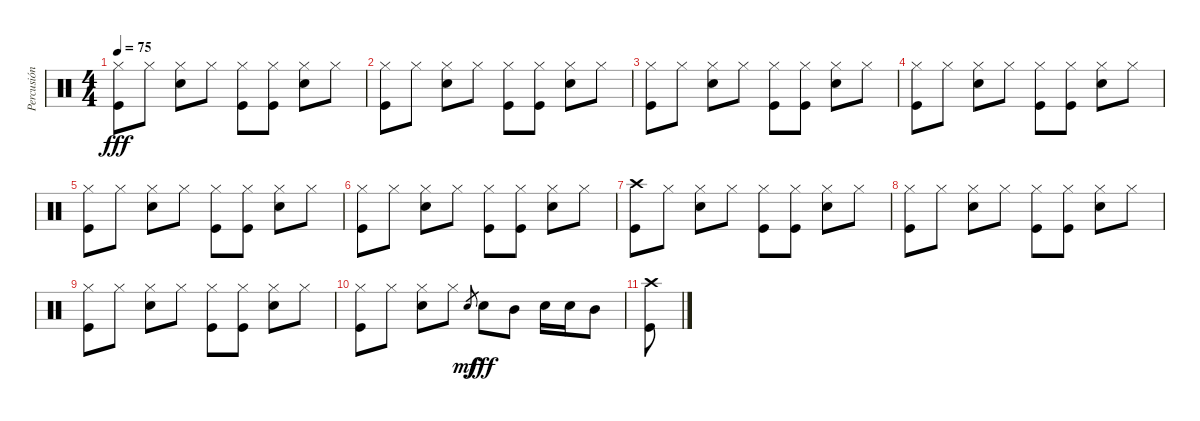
\track ("Percusión" "Percusión") {instrument percussion}
\staff {score}
\articulation defaults
\ts (4 4)
\tempo 75
\clef neutral
\ks c
("Hi-Hat (closed)" "Kick (hit)").8{dy fff} "Hi-Hat (closed)".8 ("Hi-Hat (closed)" "Snare (hit) 2").8 "Hi-Hat (closed)".8 ("Hi-Hat (closed)" "Kick (hit)").8 ("Hi-Hat (closed)" "Kick (hit)").8 ("Hi-Hat (closed)" "Snare (hit) 2").8 "Hi-Hat (closed)".8 |
("Hi-Hat (closed)" "Kick (hit)").8 "Hi-Hat (closed)".8 ("Hi-Hat (closed)" "Snare (hit) 2").8 "Hi-Hat (closed)".8 ("Hi-Hat (closed)" "Kick (hit)").8 ("Hi-Hat (closed)" "Kick (hit)").8 ("Hi-Hat (closed)" "Snare (hit) 2").8 "Hi-Hat (closed)".8 |
("Hi-Hat (closed)" "Kick (hit)").8 "Hi-Hat (closed)".8 ("Hi-Hat (closed)" "Snare (hit) 2").8 "Hi-Hat (closed)".8 ("Hi-Hat (closed)" "Kick (hit)").8 ("Hi-Hat (closed)" "Kick (hit)").8 ("Hi-Hat (closed)" "Snare (hit) 2").8 "Hi-Hat (closed)".8 |
("Hi-Hat (closed)" "Kick (hit)").8 "Hi-Hat (closed)".8 ("Hi-Hat (closed)" "Snare (hit) 2").8 "Hi-Hat (closed)".8 ("Hi-Hat (closed)" "Kick (hit)").8 ("Hi-Hat (closed)" "Kick (hit)").8 ("Hi-Hat (closed)" "Snare (hit) 2").8 "Hi-Hat (closed)".8 |
("Hi-Hat (closed)" "Kick (hit)").8 "Hi-Hat (closed)".8 ("Hi-Hat (closed)" "Snare (hit) 2").8 "Hi-Hat (closed)".8 ("Hi-Hat (closed)" "Kick (hit)").8 ("Hi-Hat (closed)" "Kick (hit)").8 ("Hi-Hat (closed)" "Snare (hit) 2").8 "Hi-Hat (closed)".8 |
("Hi-Hat (closed)" "Kick (hit)").8 "Hi-Hat (closed)".8 ("Hi-Hat (closed)" "Snare (hit) 2").8 "Hi-Hat (closed)".8 ("Hi-Hat (closed)" "Kick (hit)").8 ("Hi-Hat (closed)" "Kick (hit)").8 ("Hi-Hat (closed)" "Snare (hit) 2").8 "Hi-Hat (closed)".8 |
("Crash high (hit)" "Kick (hit)").8 "Hi-Hat (closed)".8 ("Hi-Hat (closed)" "Snare (hit) 2").8 "Hi-Hat (closed)".8 ("Hi-Hat (closed)" "Kick (hit)").8 ("Hi-Hat (closed)" "Kick (hit)").8 ("Hi-Hat (closed)" "Snare (hit) 2").8 "Hi-Hat (closed)".8 |
("Hi-Hat (closed)" "Kick (hit)").8 "Hi-Hat (closed)".8 ("Hi-Hat (closed)" "Snare (hit) 2").8 "Hi-Hat (closed)".8 ("Hi-Hat (closed)" "Kick (hit)").8 ("Hi-Hat (closed)" "Kick (hit)").8 ("Hi-Hat (closed)" "Snare (hit) 2").8 "Hi-Hat (closed)".8 |
("Hi-Hat (closed)" "Kick (hit)").8 "Hi-Hat (closed)".8 ("Hi-Hat (closed)" "Snare (hit) 2").8 "Hi-Hat (closed)".8 ("Hi-Hat (closed)" "Kick (hit)").8 ("Hi-Hat (closed)" "Kick (hit)").8 ("Hi-Hat (closed)" "Snare (hit) 2").8 "Hi-Hat (closed)".8 |
("Hi-Hat (closed)" "Kick (hit)").8 "Hi-Hat (closed)".8 ("Hi-Hat (closed)" "Snare (hit) 2").8 "Hi-Hat (closed)".8 "Snare (hit) 2"{h}.8{gr dy mf} "Snare (hit) 2".8{dy fff} "Mid Tom (hit)".8 "Snare (hit) 2".16 "Snare (hit) 2".16 "Mid Tom (hit)".8 |
("Crash high (hit)" "Kick (hit)").8
